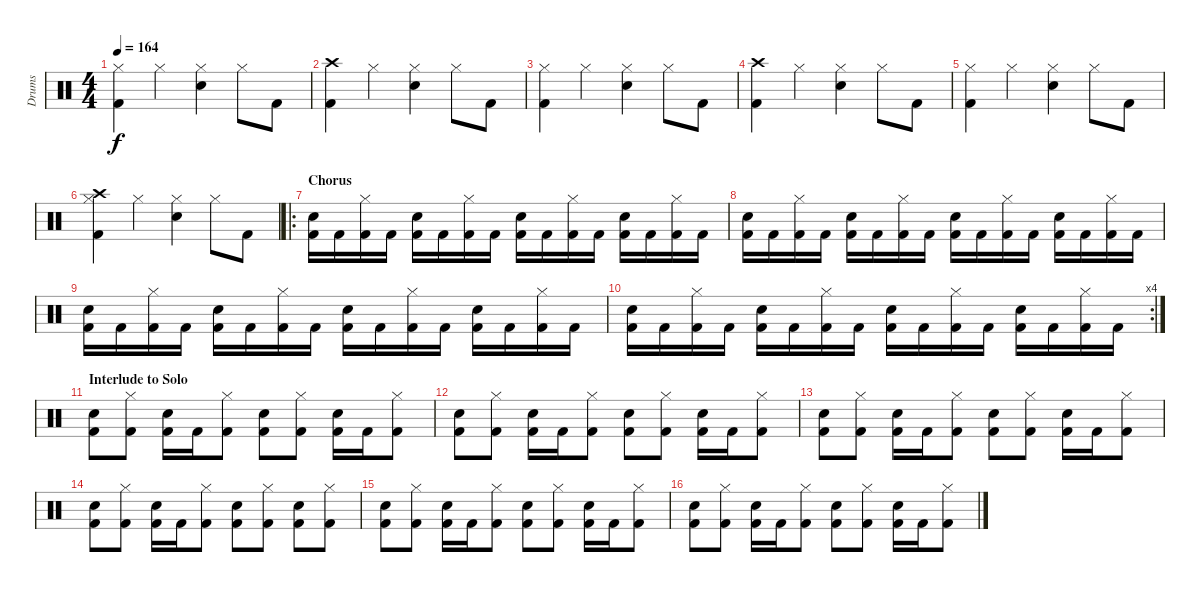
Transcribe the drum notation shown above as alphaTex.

\track ("Drums" "Drums") {instrument percussion}
\staff {score}
\articulation defaults
\ts (4 4)
\tempo 164
\clef neutral
\ks c
("Hi-Hat (closed)" "Kick (hit) 2").4{dy f} "Hi-Hat (closed)".4 ("Hi-Hat (closed)" "Snare (hit) 2").4 "Hi-Hat (closed)".8 "Kick (hit) 2".8 |
("Crash high (hit)" "Kick (hit) 2").4 "Hi-Hat (closed)".4 ("Hi-Hat (closed)" "Snare (hit) 2").4 "Hi-Hat (closed)".8 "Kick (hit) 2".8 |
("Hi-Hat (closed)" "Kick (hit) 2").4 "Hi-Hat (closed)".4 ("Hi-Hat (closed)" "Snare (hit) 2").4 "Hi-Hat (closed)".8 "Kick (hit) 2".8 |
("Crash high (hit)" "Kick (hit) 2").4 "Hi-Hat (closed)".4 ("Hi-Hat (closed)" "Snare (hit) 2").4 "Hi-Hat (closed)".8 "Kick (hit) 2".8 |
("Hi-Hat (closed)" "Kick (hit) 2").4 "Hi-Hat (closed)".4 ("Hi-Hat (closed)" "Snare (hit) 2").4 "Hi-Hat (closed)".8 "Kick (hit) 2".8 |
("Crash high (hit)" "Hi-Hat (closed)" "Kick (hit) 2").4 "Hi-Hat (closed)".4 ("Hi-Hat (closed)" "Snare (hit) 2").4 "Hi-Hat (closed)".8 "Kick (hit) 2".8 |
\ro
\section ("" "Chorus")
("Snare (hit) 2" "Kick (hit) 2").16 "Kick (hit) 2".16 ("Hi-Hat (closed)" "Kick (hit) 2").16 "Kick (hit) 2".16 ("Snare (hit) 2" "Kick (hit) 2").16 "Kick (hit) 2".16 ("Hi-Hat (closed)" "Kick (hit) 2").16 "Kick (hit) 2".16 ("Snare (hit) 2" "Kick (hit) 2").16 "Kick (hit) 2".16 ("Hi-Hat (closed)" "Kick (hit) 2").16 "Kick (hit) 2".16 ("Snare (hit) 2" "Kick (hit) 2").16 "Kick (hit) 2".16 ("Hi-Hat (closed)" "Kick (hit) 2").16 "Kick (hit) 2".16 |
("Snare (hit) 2" "Kick (hit) 2").16 "Kick (hit) 2".16 ("Hi-Hat (closed)" "Kick (hit) 2").16 "Kick (hit) 2".16 ("Snare (hit) 2" "Kick (hit) 2").16 "Kick (hit) 2".16 ("Hi-Hat (closed)" "Kick (hit) 2").16 "Kick (hit) 2".16 ("Snare (hit) 2" "Kick (hit) 2").16 "Kick (hit) 2".16 ("Hi-Hat (closed)" "Kick (hit) 2").16 "Kick (hit) 2".16 ("Snare (hit) 2" "Kick (hit) 2").16 "Kick (hit) 2".16 ("Hi-Hat (closed)" "Kick (hit) 2").16 "Kick (hit) 2".16 |
("Snare (hit) 2" "Kick (hit) 2").16 "Kick (hit) 2".16 ("Hi-Hat (closed)" "Kick (hit) 2").16 "Kick (hit) 2".16 ("Snare (hit) 2" "Kick (hit) 2").16 "Kick (hit) 2".16 ("Hi-Hat (closed)" "Kick (hit) 2").16 "Kick (hit) 2".16 ("Snare (hit) 2" "Kick (hit) 2").16 "Kick (hit) 2".16 ("Hi-Hat (closed)" "Kick (hit) 2").16 "Kick (hit) 2".16 ("Snare (hit) 2" "Kick (hit) 2").16 "Kick (hit) 2".16 ("Hi-Hat (closed)" "Kick (hit) 2").16 "Kick (hit) 2".16 |
\rc 4
("Snare (hit) 2" "Kick (hit) 2").16 "Kick (hit) 2".16 ("Hi-Hat (closed)" "Kick (hit) 2").16 "Kick (hit) 2".16 ("Snare (hit) 2" "Kick (hit) 2").16 "Kick (hit) 2".16 ("Hi-Hat (closed)" "Kick (hit) 2").16 "Kick (hit) 2".16 ("Snare (hit) 2" "Kick (hit) 2").16 "Kick (hit) 2".16 ("Hi-Hat (closed)" "Kick (hit) 2").16 "Kick (hit) 2".16 ("Snare (hit) 2" "Kick (hit) 2").16 "Kick (hit) 2".16 ("Hi-Hat (closed)" "Kick (hit) 2").16 "Kick (hit) 2".16 |
\section ("" "Interlude to Solo")
("Snare (hit) 2" "Kick (hit) 2").8 ("Hi-Hat (closed)" "Kick (hit) 2").8 ("Snare (hit) 2" "Kick (hit) 2").16 "Kick (hit) 2".16 ("Hi-Hat (closed)" "Kick (hit) 2").8 ("Snare (hit) 2" "Kick (hit) 2").8 ("Hi-Hat (closed)" "Kick (hit) 2").8 ("Snare (hit) 2" "Kick (hit) 2").16 "Kick (hit) 2".16 ("Hi-Hat (closed)" "Kick (hit) 2").8 |
("Snare (hit) 2" "Kick (hit) 2").8 ("Hi-Hat (closed)" "Kick (hit) 2").8 ("Snare (hit) 2" "Kick (hit) 2").16 "Kick (hit) 2".16 ("Hi-Hat (closed)" "Kick (hit) 2").8 ("Snare (hit) 2" "Kick (hit) 2").8 ("Hi-Hat (closed)" "Kick (hit) 2").8 ("Snare (hit) 2" "Kick (hit) 2").16 "Kick (hit) 2".16 ("Hi-Hat (closed)" "Kick (hit) 2").8 |
("Snare (hit) 2" "Kick (hit) 2").8 ("Hi-Hat (closed)" "Kick (hit) 2").8 ("Snare (hit) 2" "Kick (hit) 2").16 "Kick (hit) 2".16 ("Hi-Hat (closed)" "Kick (hit) 2").8 ("Snare (hit) 2" "Kick (hit) 2").8 ("Hi-Hat (closed)" "Kick (hit) 2").8 ("Snare (hit) 2" "Kick (hit) 2").16 "Kick (hit) 2".16 ("Hi-Hat (closed)" "Kick (hit) 2").8 |
("Snare (hit) 2" "Kick (hit) 2").8 ("Hi-Hat (closed)" "Kick (hit) 2").8 ("Snare (hit) 2" "Kick (hit) 2").16 "Kick (hit) 2".16 ("Hi-Hat (closed)" "Kick (hit) 2").8 ("Snare (hit) 2" "Kick (hit) 2").8 ("Hi-Hat (closed)" "Kick (hit) 2").8 ("Snare (hit) 2" "Kick (hit) 2").8 ("Hi-Hat (closed)" "Kick (hit) 2").8 |
("Snare (hit) 2" "Kick (hit) 2").8 ("Hi-Hat (closed)" "Kick (hit) 2").8 ("Snare (hit) 2" "Kick (hit) 2").16 "Kick (hit) 2".16 ("Hi-Hat (closed)" "Kick (hit) 2").8 ("Snare (hit) 2" "Kick (hit) 2").8 ("Hi-Hat (closed)" "Kick (hit) 2").8 ("Snare (hit) 2" "Kick (hit) 2").16 "Kick (hit) 2".16 ("Hi-Hat (closed)" "Kick (hit) 2").8 |
("Snare (hit) 2" "Kick (hit) 2").8 ("Hi-Hat (closed)" "Kick (hit) 2").8 ("Snare (hit) 2" "Kick (hit) 2").16 "Kick (hit) 2".16 ("Hi-Hat (closed)" "Kick (hit) 2").8 ("Snare (hit) 2" "Kick (hit) 2").8 ("Hi-Hat (closed)" "Kick (hit) 2").8 ("Snare (hit) 2" "Kick (hit) 2").16 "Kick (hit) 2".16 ("Hi-Hat (closed)" "Kick (hit) 2").8
